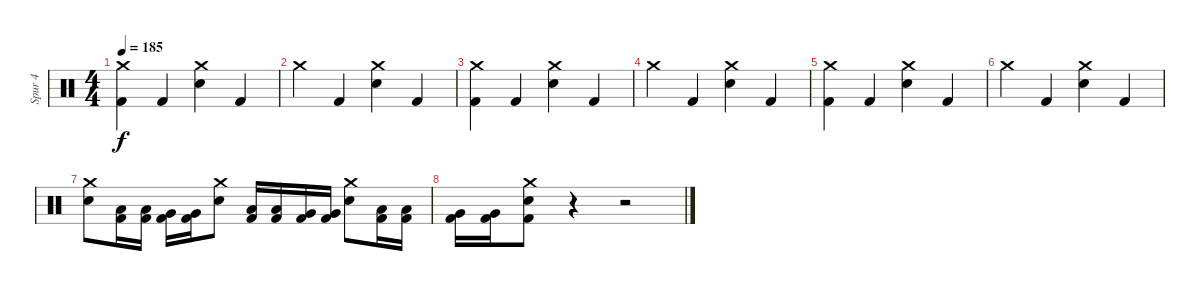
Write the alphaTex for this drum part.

\track ("Spur 4" "Spur 4") {instrument percussion}
\staff {score}
\articulation defaults
\ts (4 4)
\tempo 185
\clef neutral
\ks c
("Crash medium (hit)" "Kick (hit) 2").4{dy f} "Kick (hit) 2".4 ("Crash medium (hit)" "Electric Snare (hit)").4 "Kick (hit) 2".4 |
"Crash medium (hit)".4 "Kick (hit) 2".4 ("Crash medium (hit)" "Electric Snare (hit)").4 "Kick (hit) 2".4 |
("Crash medium (hit)" "Kick (hit) 2").4 "Kick (hit) 2".4 ("Crash medium (hit)" "Electric Snare (hit)").4 "Kick (hit) 2".4 |
"Crash medium (hit)".4 "Kick (hit) 2".4 ("Crash medium (hit)" "Electric Snare (hit)").4 "Kick (hit) 2".4 |
("Crash medium (hit)" "Kick (hit) 2").4 "Kick (hit) 2".4 ("Crash medium (hit)" "Electric Snare (hit)").4 "Kick (hit) 2".4 |
"Crash medium (hit)".4 "Kick (hit) 2".4 ("Crash medium (hit)" "Electric Snare (hit)").4 "Kick (hit) 2".4 |
("Crash medium (hit)" "Electric Snare (hit)").8 ("Low Tom (hit)" "Kick (hit) 2").16 ("Low Tom (hit)" "Kick (hit) 2").16 ("Very Low Tom (hit)" "Kick (hit) 2").16 ("Very Low Tom (hit)" "Kick (hit) 2").16 ("Crash medium (hit)" "Electric Snare (hit)").8 ("Low Tom (hit)" "Kick (hit) 2").16 ("Low Tom (hit)" "Kick (hit) 2").16 ("Very Low Tom (hit)" "Kick (hit) 2").16 ("Very Low Tom (hit)" "Kick (hit) 2").16 ("Crash medium (hit)" "Electric Snare (hit)").8 ("Low Tom (hit)" "Kick (hit) 2").16 ("Low Tom (hit)" "Kick (hit) 2").16 |
("Very Low Tom (hit)" "Kick (hit) 2").16 ("Very Low Tom (hit)" "Kick (hit) 2").16 ("Crash medium (hit)" "Electric Snare (hit)" "Kick (hit) 2").8 r.4 r.2
